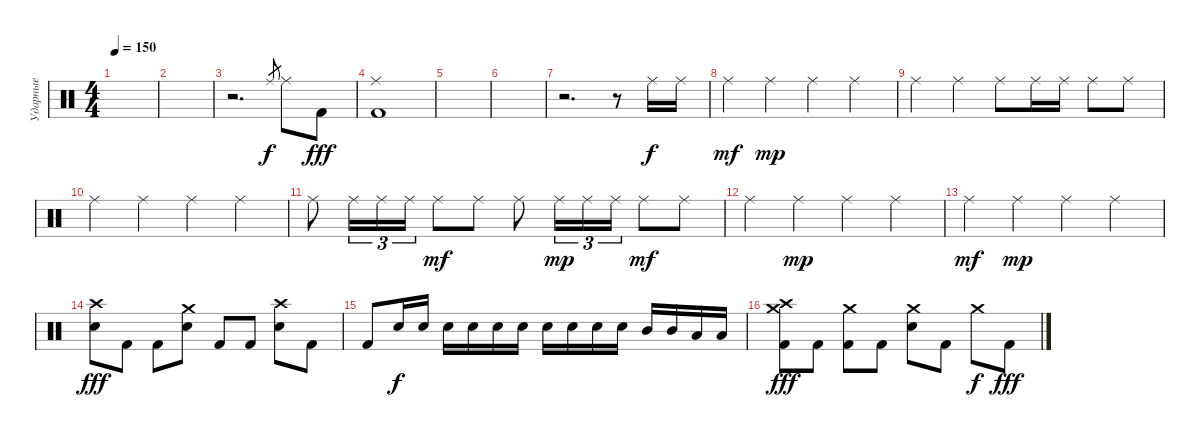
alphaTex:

\track ("Ударные" "Ударные") {instrument percussion}
\staff {score}
\articulation defaults
\ts (4 4)
\tempo 150
\clef neutral
\ks c
|
|
r.2{d} "Ride (middle)".8{gr dy f} "Ride (middle)".8 "Kick (hit) 2".8{dy fff} |
("Ride (middle)" "Kick (hit) 2").1 |
|
|
r.2{d} r.8 "Ride (middle)".16{dy f} "Ride (middle)".16 |
"Ride (middle)".4{dy mf} "Ride (middle)".4{dy mp} "Ride (middle)".4 "Ride (middle)".4 |
"Ride (middle)".4 "Ride (middle)".4 "Ride (middle)".8 "Ride (middle)".16 "Ride (middle)".16 "Ride (middle)".8 "Ride (middle)".8 |
"Ride (middle)".4 "Ride (middle)".4 "Ride (middle)".4 "Ride (middle)".4 |
"Ride (middle)".8 "Ride (middle)".16{tu (3 2)} "Ride (middle)".16{tu (3 2)} "Ride (middle)".16{tu (3 2)} "Ride (middle)".8{dy mf} "Ride (middle)".8 "Ride (middle)".8 "Ride (middle)".16{tu (3 2) dy mp} "Ride (middle)".16{tu (3 2)} "Ride (middle)".16{tu (3 2)} "Ride (middle)".8{dy mf} "Ride (middle)".8 |
"Ride (middle)".4 "Ride (middle)".4{dy mp} "Ride (middle)".4 "Ride (middle)".4 |
"Ride (middle)".4{dy mf} "Ride (middle)".4{dy mp} "Ride (middle)".4 "Ride (middle)".4 |
("Crash high (hit)" "Electric Snare (hit)").8{dy fff} "Kick (hit) 2".8 "Kick (hit) 2".8 ("Crash medium (hit)" "Electric Snare (hit)").8 "Kick (hit) 2".8 "Kick (hit) 2".8 ("Crash high (hit)" "Electric Snare (hit)").8 "Kick (hit) 2".8 |
"Kick (hit) 2".8 "Electric Snare (hit)".16{dy f} "Electric Snare (hit)".16 "Electric Snare (hit)".16 "Electric Snare (hit)".16 "Electric Snare (hit)".16 "Electric Snare (hit)".16 "Electric Snare (hit)".16 "Electric Snare (hit)".16 "Electric Snare (hit)".16 "Electric Snare (hit)".16 "Mid Tom (hit)".16 "Mid Tom (hit)".16 "Low Floor Tom (hit)".16 "Low Floor Tom (hit)".16 |
("Crash high (hit)" "Crash medium (hit)" "Kick (hit) 2").8{dy fff} "Kick (hit) 2".8 ("Crash medium (hit)" "Kick (hit) 2").8 "Kick (hit) 2".8 ("Crash medium (hit)" "Electric Snare (hit)").8 "Kick (hit) 2".8 "Crash medium (hit)".8{dy f} "Kick (hit) 2".8{dy fff}
